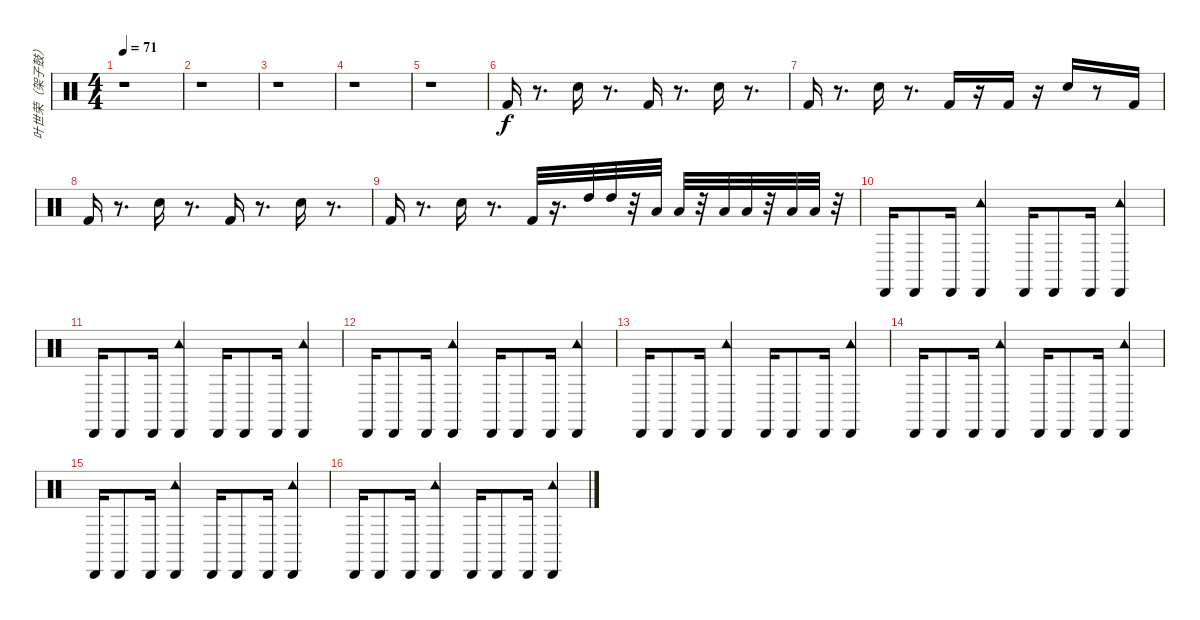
\track ("叶世荣（架子鼓）" "叶世荣（架子鼓）") {instrument percussion}
\staff {score}
\articulation defaults
\ts (4 4)
\tempo 71
\clef neutral
\ks c
r.1{dy f} |
r.1 |
r.1 |
r.1 |
r.1 |
"Kick (hit) 2".16 r.8{d} "Snare (hit) 2".16 r.8{d} "Kick (hit) 2".16 r.8{d} "Snare (hit) 2".16 r.8{d} |
"Kick (hit) 2".16 r.8{d} "Snare (hit) 2".16 r.8{d} "Kick (hit) 2".16 r.16 "Kick (hit) 2".16 r.16 "Snare (hit) 2".16 r.8 "Kick (hit) 2".16 |
"Kick (hit) 2".16 r.8{d} "Snare (hit) 2".16 r.8{d} "Kick (hit) 2".16 r.8{d} "Snare (hit) 2".16 r.8{d} |
"Kick (hit) 2".16 r.8{d} "Snare (hit) 2".16 r.8{d} "Kick (hit) 2".32 r.16{d} "High Tom (hit)".32 "High Tom (hit)".32 r.32 "Low Tom (hit)".32 "Low Tom (hit)".32 r.32 "Low Floor Tom (hit)".32 "Low Floor Tom (hit)".32 r.32 "Low Floor Tom (hit)".32 "Low Floor Tom (hit)".32 r.32 |
"Cabasa (hit)".16 "Cabasa (hit)".8 "Cabasa (hit)".16 ("Tambourine (hit)" "Cabasa (hit)").4 "Cabasa (hit)".16 "Cabasa (hit)".8 "Cabasa (hit)".16 ("Tambourine (hit)" "Cabasa (hit)").4 |
"Cabasa (hit)".16 "Cabasa (hit)".8 "Cabasa (hit)".16 ("Tambourine (hit)" "Cabasa (hit)").4 "Cabasa (hit)".16 "Cabasa (hit)".8 "Cabasa (hit)".16 ("Tambourine (hit)" "Cabasa (hit)").4 |
"Cabasa (hit)".16 "Cabasa (hit)".8 "Cabasa (hit)".16 ("Tambourine (hit)" "Cabasa (hit)").4 "Cabasa (hit)".16 "Cabasa (hit)".8 "Cabasa (hit)".16 ("Tambourine (hit)" "Cabasa (hit)").4 |
"Cabasa (hit)".16 "Cabasa (hit)".8 "Cabasa (hit)".16 ("Tambourine (hit)" "Cabasa (hit)").4 "Cabasa (hit)".16 "Cabasa (hit)".8 "Cabasa (hit)".16 ("Tambourine (hit)" "Cabasa (hit)").4 |
"Cabasa (hit)".16 "Cabasa (hit)".8 "Cabasa (hit)".16 ("Tambourine (hit)" "Cabasa (hit)").4 "Cabasa (hit)".16 "Cabasa (hit)".8 "Cabasa (hit)".16 ("Tambourine (hit)" "Cabasa (hit)").4 |
"Cabasa (hit)".16 "Cabasa (hit)".8 "Cabasa (hit)".16 ("Tambourine (hit)" "Cabasa (hit)").4 "Cabasa (hit)".16 "Cabasa (hit)".8 "Cabasa (hit)".16 ("Tambourine (hit)" "Cabasa (hit)").4 |
"Cabasa (hit)".16 "Cabasa (hit)".8 "Cabasa (hit)".16 ("Tambourine (hit)" "Cabasa (hit)").4 "Cabasa (hit)".16 "Cabasa (hit)".8 "Cabasa (hit)".16 ("Tambourine (hit)" "Cabasa (hit)").4
